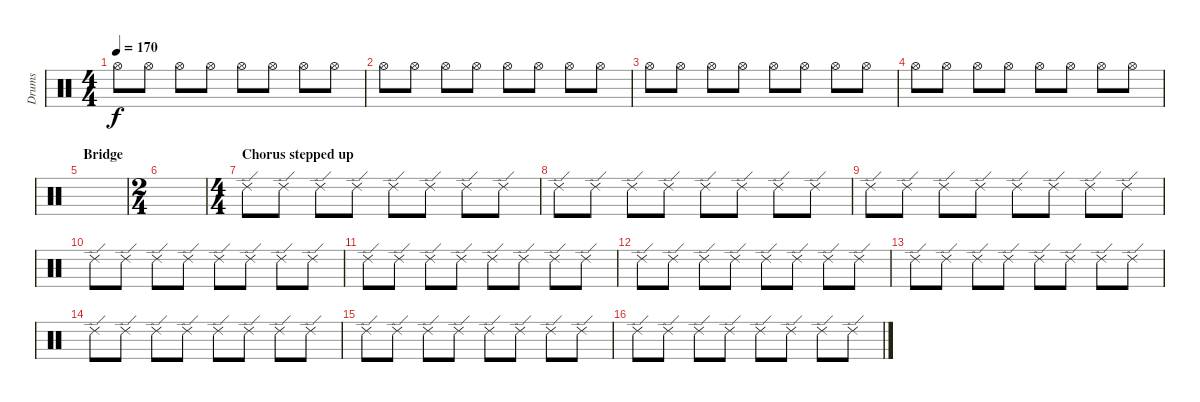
\track ("Drums" "Drums") {instrument percussion}
\staff {score}
\articulation defaults
\ts (4 4)
\tempo 170
\clef neutral
\ks c "Hi-Hat (open)".8{dy f} "Hi-Hat (open)".8 "Hi-Hat (open)".8 "Hi-Hat (open)".8 "Hi-Hat (open)".8 "Hi-Hat (open)".8 "Hi-Hat (open)".8 "Hi-Hat (open)".8
|
"Hi-Hat (open)".8 "Hi-Hat (open)".8 "Hi-Hat (open)".8 "Hi-Hat (open)".8 "Hi-Hat (open)".8 "Hi-Hat (open)".8 "Hi-Hat (open)".8 "Hi-Hat (open)".8 |
"Hi-Hat (open)".8 "Hi-Hat (open)".8 "Hi-Hat (open)".8 "Hi-Hat (open)".8 "Hi-Hat (open)".8 "Hi-Hat (open)".8 "Hi-Hat (open)".8 "Hi-Hat (open)".8 |
"Hi-Hat (open)".8 "Hi-Hat (open)".8 "Hi-Hat (open)".8 "Hi-Hat (open)".8 "Hi-Hat (open)".8 "Hi-Hat (open)".8 "Hi-Hat (open)".8 "Hi-Hat (open)".8 |
\section ("" "Bridge")
|
\ts (2 4)
|
\ts (4 4)
\section ("" "Chorus stepped up")
"Ride (edge) 2".8 "Ride (edge) 2".8 "Ride (edge) 2".8 "Ride (edge) 2".8 "Ride (edge) 2".8 "Ride (edge) 2".8 "Ride (edge) 2".8 "Ride (edge) 2".8 |
"Ride (edge) 2".8 "Ride (edge) 2".8 "Ride (edge) 2".8 "Ride (edge) 2".8 "Ride (edge) 2".8 "Ride (edge) 2".8 "Ride (edge) 2".8 "Ride (edge) 2".8 |
"Ride (edge) 2".8 "Ride (edge) 2".8 "Ride (edge) 2".8 "Ride (edge) 2".8 "Ride (edge) 2".8 "Ride (edge) 2".8 "Ride (edge) 2".8 "Ride (edge) 2".8 |
"Ride (edge) 2".8 "Ride (edge) 2".8 "Ride (edge) 2".8 "Ride (edge) 2".8 "Ride (edge) 2".8 "Ride (edge) 2".8 "Ride (edge) 2".8 "Ride (edge) 2".8 |
"Ride (edge) 2".8 "Ride (edge) 2".8 "Ride (edge) 2".8 "Ride (edge) 2".8 "Ride (edge) 2".8 "Ride (edge) 2".8 "Ride (edge) 2".8 "Ride (edge) 2".8 |
"Ride (edge) 2".8 "Ride (edge) 2".8 "Ride (edge) 2".8 "Ride (edge) 2".8 "Ride (edge) 2".8 "Ride (edge) 2".8 "Ride (edge) 2".8 "Ride (edge) 2".8 |
"Ride (edge) 2".8 "Ride (edge) 2".8 "Ride (edge) 2".8 "Ride (edge) 2".8 "Ride (edge) 2".8 "Ride (edge) 2".8 "Ride (edge) 2".8 "Ride (edge) 2".8 |
"Ride (edge) 2".8 "Ride (edge) 2".8 "Ride (edge) 2".8 "Ride (edge) 2".8 "Ride (edge) 2".8 "Ride (edge) 2".8 "Ride (edge) 2".8 "Ride (edge) 2".8 |
"Ride (edge) 2".8 "Ride (edge) 2".8 "Ride (edge) 2".8 "Ride (edge) 2".8 "Ride (edge) 2".8 "Ride (edge) 2".8 "Ride (edge) 2".8 "Ride (edge) 2".8 |
"Ride (edge) 2".8 "Ride (edge) 2".8 "Ride (edge) 2".8 "Ride (edge) 2".8 "Ride (edge) 2".8 "Ride (edge) 2".8 "Ride (edge) 2".8 "Ride (edge) 2".8
